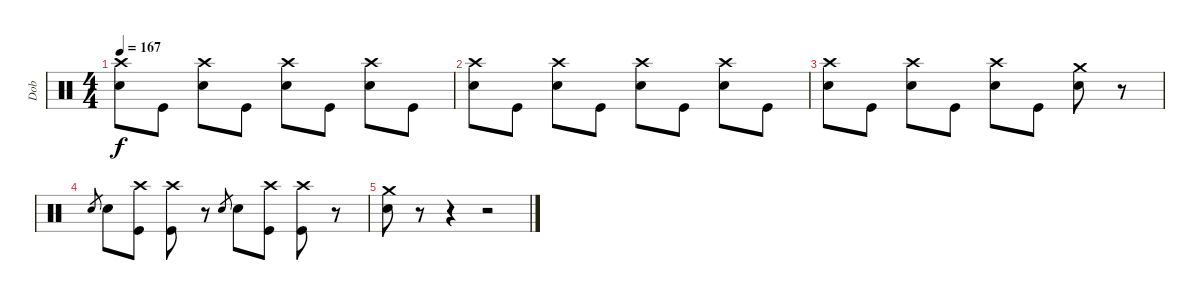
\track ("Dob" "Dob") {instrument percussion}
\staff {score}
\articulation defaults
\ts (4 4)
\tempo 167
\clef neutral
\ks c
("Crash high (hit)" "Snare (hit) 2").8{dy f} "Kick (hit)".8 ("Crash high (hit)" "Snare (hit) 2").8 "Kick (hit)".8 ("Crash high (hit)" "Snare (hit) 2").8 "Kick (hit)".8 ("Crash high (hit)" "Snare (hit) 2").8 "Kick (hit)".8 |
("Crash high (hit)" "Snare (hit) 2").8 "Kick (hit)".8 ("Crash high (hit)" "Snare (hit) 2").8 "Kick (hit)".8 ("Crash high (hit)" "Snare (hit) 2").8 "Kick (hit)".8 ("Crash high (hit)" "Snare (hit) 2").8 "Kick (hit)".8 |
("Crash high (hit)" "Snare (hit) 2").8 "Kick (hit)".8 ("Crash high (hit)" "Snare (hit) 2").8 "Kick (hit)".8 ("Crash high (hit)" "Snare (hit) 2").8 "Kick (hit)".8 ("Crash medium (hit)" "Snare (hit) 2").8 r.8 |
"Snare (hit) 2".8{gr} "Snare (hit) 2".8 ("Crash high (hit)" "Kick (hit)").8 ("Crash high (hit)" "Kick (hit)").8 r.8 "Snare (hit) 2".8{gr} "Snare (hit) 2".8 ("Crash high (hit)" "Kick (hit)").8 ("Crash high (hit)" "Kick (hit)").8 r.8 |
("Crash medium (hit)" "Snare (hit) 2").8 r.8 r.4 r.2
